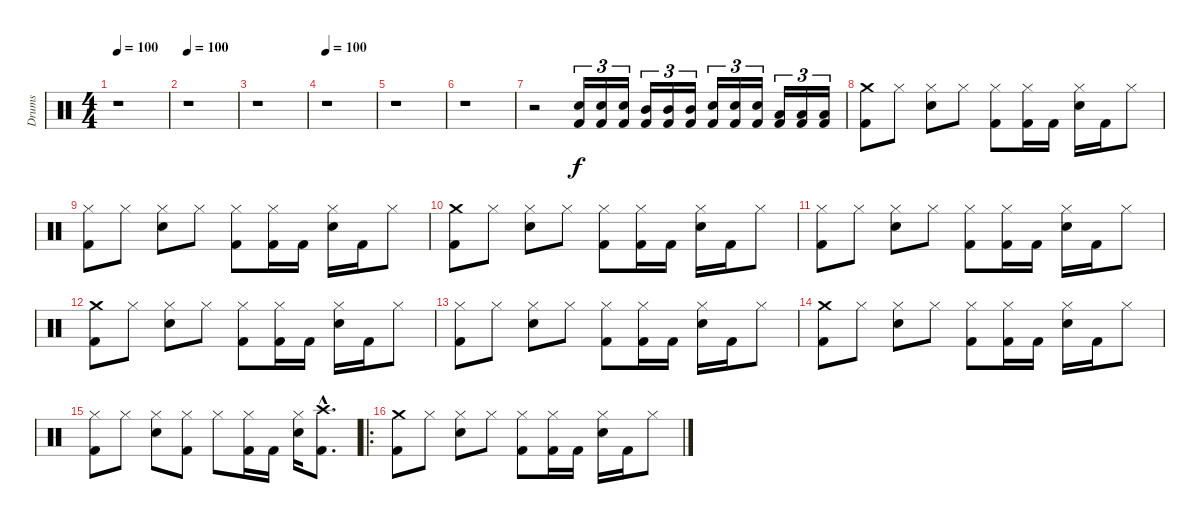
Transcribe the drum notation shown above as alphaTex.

\track ("Drums" "Drums") {instrument percussion}
\staff {score}
\articulation defaults
\ts (4 4)
\tempo 100
\tempo 120
\tempo 100
\clef neutral
\ks c
r.1{dy f} |
\tempo 100
r.1 |
r.1 |
\tempo 100
r.1 |
r.1 |
r.1 |
r.2 ("Kick (hit) 2" "Snare (hit) 2").16{tu (3 2)} ("Kick (hit) 2" "Snare (hit) 2").16{tu (3 2)} ("Kick (hit) 2" "Snare (hit) 2").16{tu (3 2)} ("Kick (hit) 2" "Mid Tom (hit)").16{tu (3 2)} ("Kick (hit) 2" "Mid Tom (hit)").16{tu (3 2)} ("Kick (hit) 2" "Mid Tom (hit)").16{tu (3 2)} ("Kick (hit) 2" "Snare (hit) 2").16{tu (3 2)} ("Kick (hit) 2" "Snare (hit) 2").16{tu (3 2)} ("Kick (hit) 2" "Snare (hit) 2").16{tu (3 2)} ("Kick (hit) 2" "Low Tom (hit)").16{tu (3 2)} ("Kick (hit) 2" "Low Tom (hit)").16{tu (3 2)} ("Kick (hit) 2" "Low Tom (hit)").16{tu (3 2)} |
("Kick (hit) 2" "Crash medium (hit)").8 "Hi-Hat (closed)".8 ("Hi-Hat (closed)" "Snare (hit) 2").8 "Hi-Hat (closed)".8 ("Kick (hit) 2" "Hi-Hat (closed)").8 ("Kick (hit) 2" "Hi-Hat (closed)").16 "Kick (hit) 2".16 ("Hi-Hat (closed)" "Snare (hit) 2").16 "Kick (hit) 2".16 "Hi-Hat (closed)".8 |
("Kick (hit) 2" "Hi-Hat (closed)").8 "Hi-Hat (closed)".8 ("Hi-Hat (closed)" "Snare (hit) 2").8 "Hi-Hat (closed)".8 ("Kick (hit) 2" "Hi-Hat (closed)").8 ("Kick (hit) 2" "Hi-Hat (closed)").16 "Kick (hit) 2".16 ("Hi-Hat (closed)" "Snare (hit) 2").16 "Kick (hit) 2".16 "Hi-Hat (closed)".8 |
("Kick (hit) 2" "Crash medium (hit)").8 "Hi-Hat (closed)".8 ("Hi-Hat (closed)" "Snare (hit) 2").8 "Hi-Hat (closed)".8 ("Kick (hit) 2" "Hi-Hat (closed)").8 ("Kick (hit) 2" "Hi-Hat (closed)").16 "Kick (hit) 2".16 ("Hi-Hat (closed)" "Snare (hit) 2").16 "Kick (hit) 2".16 "Hi-Hat (closed)".8 |
("Kick (hit) 2" "Hi-Hat (closed)").8 "Hi-Hat (closed)".8 ("Hi-Hat (closed)" "Snare (hit) 2").8 "Hi-Hat (closed)".8 ("Kick (hit) 2" "Hi-Hat (closed)").8 ("Kick (hit) 2" "Hi-Hat (closed)").16 "Kick (hit) 2".16 ("Hi-Hat (closed)" "Snare (hit) 2").16 "Kick (hit) 2".16 "Hi-Hat (closed)".8 |
("Kick (hit) 2" "Crash medium (hit)").8 "Hi-Hat (closed)".8 ("Hi-Hat (closed)" "Snare (hit) 2").8 "Hi-Hat (closed)".8 ("Kick (hit) 2" "Hi-Hat (closed)").8 ("Kick (hit) 2" "Hi-Hat (closed)").16 "Kick (hit) 2".16 ("Hi-Hat (closed)" "Snare (hit) 2").16 "Kick (hit) 2".16 "Hi-Hat (closed)".8 |
("Kick (hit) 2" "Hi-Hat (closed)").8 "Hi-Hat (closed)".8 ("Hi-Hat (closed)" "Snare (hit) 2").8 "Hi-Hat (closed)".8 ("Kick (hit) 2" "Hi-Hat (closed)").8 ("Kick (hit) 2" "Hi-Hat (closed)").16 "Kick (hit) 2".16 ("Hi-Hat (closed)" "Snare (hit) 2").16 "Kick (hit) 2".16 "Hi-Hat (closed)".8 |
("Kick (hit) 2" "Crash medium (hit)").8 "Hi-Hat (closed)".8 ("Hi-Hat (closed)" "Snare (hit) 2").8 "Hi-Hat (closed)".8 ("Kick (hit) 2" "Hi-Hat (closed)").8 ("Kick (hit) 2" "Hi-Hat (closed)").16 "Kick (hit) 2".16 ("Hi-Hat (closed)" "Snare (hit) 2").16 "Kick (hit) 2".16 "Hi-Hat (closed)".8 |
("Kick (hit) 2" "Hi-Hat (closed)").8 "Hi-Hat (closed)".8 ("Hi-Hat (closed)" "Snare (hit) 2").8 ("Kick (hit) 2" "Hi-Hat (closed)").8 "Hi-Hat (closed)".8 ("Kick (hit) 2" "Hi-Hat (closed)").16 "Kick (hit) 2".16 ("Hi-Hat (closed)" "Snare (hit) 2").16 ("Kick (hit) 2"{hac} "Crash high (hit)"{hac}).8{d} |
\ro
("Kick (hit) 2" "Crash medium (hit)").8 "Hi-Hat (closed)".8 ("Hi-Hat (closed)" "Snare (hit) 2").8 "Hi-Hat (closed)".8 ("Kick (hit) 2" "Hi-Hat (closed)").8 ("Kick (hit) 2" "Hi-Hat (closed)").16 "Kick (hit) 2".16 ("Hi-Hat (closed)" "Snare (hit) 2").16 "Kick (hit) 2".16 "Hi-Hat (closed)".8
